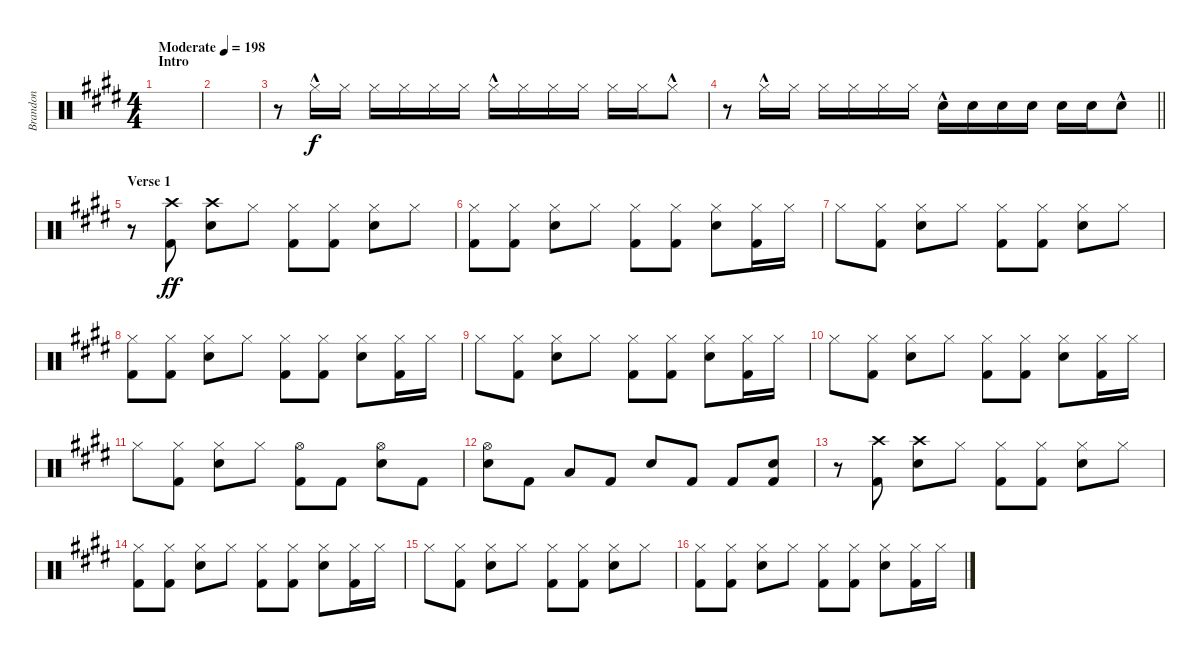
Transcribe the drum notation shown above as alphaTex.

\track ("Brandon" "Brandon") {instrument percussion}
\staff {score}
\articulation defaults
\ts (4 4)
\section ("" "Intro")
\tempo (198 "Moderate")
\clef neutral
\ks e
|
|
r.8 "Hi-Hat (closed)"{hac}.16 "Hi-Hat (closed)".16 "Hi-Hat (closed)".16 "Hi-Hat (closed)".16 "Hi-Hat (closed)".16 "Hi-Hat (closed)".16 "Hi-Hat (closed)"{hac}.16 "Hi-Hat (closed)".16 "Hi-Hat (closed)".16 "Hi-Hat (closed)".16 "Hi-Hat (closed)".16 "Hi-Hat (closed)".16 "Hi-Hat (closed)"{hac}.8 |
\barLineRight lightlight
r.8 "Hi-Hat (closed)"{hac}.16 "Hi-Hat (closed)".16 "Hi-Hat (closed)".16 "Hi-Hat (closed)".16 "Hi-Hat (closed)".16 "Hi-Hat (closed)".16 "Snare (hit) 2"{hac}.16 "Snare (hit) 2".16 "Snare (hit) 2".16 "Snare (hit) 2".16 "Snare (hit) 2".16 "Snare (hit) 2".16 "Snare (hit) 2"{hac}.8 |
\section ("" "Verse 1")
r.8 ("Kick (hit) 2" "Crash high (hit)").8{dy ff} ("Snare (hit) 2" "Crash high (hit)").8 "Hi-Hat (closed)".8 ("Kick (hit) 2" "Hi-Hat (closed)").8 ("Kick (hit) 2" "Hi-Hat (closed)").8 ("Snare (hit) 2" "Hi-Hat (closed)").8 "Hi-Hat (closed)".8 |
("Kick (hit) 2" "Hi-Hat (closed)").8 ("Kick (hit) 2" "Hi-Hat (closed)").8 ("Snare (hit) 2" "Hi-Hat (closed)").8 "Hi-Hat (closed)".8 ("Kick (hit) 2" "Hi-Hat (closed)").8 ("Kick (hit) 2" "Hi-Hat (closed)").8 ("Snare (hit) 2" "Hi-Hat (closed)").8 ("Kick (hit) 2" "Hi-Hat (closed)").16 "Hi-Hat (closed)".16 |
"Hi-Hat (closed)".8 ("Kick (hit) 2" "Hi-Hat (closed)").8 ("Snare (hit) 2" "Hi-Hat (closed)").8 "Hi-Hat (closed)".8 ("Hi-Hat (closed)" "Kick (hit) 2").8 ("Kick (hit) 2" "Hi-Hat (closed)").8 ("Snare (hit) 2" "Hi-Hat (closed)").8 "Hi-Hat (closed)".8 |
("Hi-Hat (closed)" "Kick (hit) 2").8 ("Kick (hit) 2" "Hi-Hat (closed)").8 ("Snare (hit) 2" "Hi-Hat (closed)").8 "Hi-Hat (closed)".8 ("Kick (hit) 2" "Hi-Hat (closed)").8 ("Kick (hit) 2" "Hi-Hat (closed)").8 ("Snare (hit) 2" "Hi-Hat (closed)").8 ("Kick (hit) 2" "Hi-Hat (closed)").16 "Hi-Hat (closed)".16 |
"Hi-Hat (closed)".8 ("Kick (hit) 2" "Hi-Hat (closed)").8 ("Snare (hit) 2" "Hi-Hat (closed)").8 "Hi-Hat (closed)".8 ("Kick (hit) 2" "Hi-Hat (closed)").8 ("Kick (hit) 2" "Hi-Hat (closed)").8 ("Snare (hit) 2" "Hi-Hat (closed)").8 ("Kick (hit) 2" "Hi-Hat (closed)").16 "Hi-Hat (closed)".16 |
"Hi-Hat (closed)".8 ("Kick (hit) 2" "Hi-Hat (closed)").8 ("Snare (hit) 2" "Hi-Hat (closed)").8 "Hi-Hat (closed)".8 ("Kick (hit) 2" "Hi-Hat (closed)").8 ("Kick (hit) 2" "Hi-Hat (closed)").8 ("Snare (hit) 2" "Hi-Hat (closed)").8 ("Kick (hit) 2" "Hi-Hat (closed)").16 "Hi-Hat (closed)".16 |
"Hi-Hat (closed)".8 ("Kick (hit) 2" "Hi-Hat (closed)").8 ("Snare (hit) 2" "Hi-Hat (closed)").8 "Hi-Hat (closed)".8 ("Kick (hit) 2" "Hi-Hat (open)").8 "Kick (hit) 2".8 ("Snare (hit) 2" "Hi-Hat (open)").8 "Kick (hit) 2".8 |
("Snare (hit) 2" "Hi-Hat (open)").8 "Kick (hit) 2".8 "Low Tom (hit)".8 "Kick (hit) 2".8 "Snare (hit) 2".8 "Kick (hit) 2".8 "Kick (hit) 2".8 ("Snare (hit) 2" "Kick (hit) 2").8 |
r.8 ("Kick (hit) 2" "Crash high (hit)").8 ("Snare (hit) 2" "Crash high (hit)").8 "Hi-Hat (closed)".8 ("Kick (hit) 2" "Hi-Hat (closed)").8 ("Kick (hit) 2" "Hi-Hat (closed)").8 ("Snare (hit) 2" "Hi-Hat (closed)").8 "Hi-Hat (closed)".8 |
("Kick (hit) 2" "Hi-Hat (closed)").8 ("Kick (hit) 2" "Hi-Hat (closed)").8 ("Snare (hit) 2" "Hi-Hat (closed)").8 "Hi-Hat (closed)".8 ("Kick (hit) 2" "Hi-Hat (closed)").8 ("Kick (hit) 2" "Hi-Hat (closed)").8 ("Snare (hit) 2" "Hi-Hat (closed)").8 ("Kick (hit) 2" "Hi-Hat (closed)").16 "Hi-Hat (closed)".16 |
"Hi-Hat (closed)".8 ("Kick (hit) 2" "Hi-Hat (closed)").8 ("Snare (hit) 2" "Hi-Hat (closed)").8 "Hi-Hat (closed)".8 ("Hi-Hat (closed)" "Kick (hit) 2").8 ("Kick (hit) 2" "Hi-Hat (closed)").8 ("Snare (hit) 2" "Hi-Hat (closed)").8 "Hi-Hat (closed)".8 |
("Hi-Hat (closed)" "Kick (hit) 2").8 ("Kick (hit) 2" "Hi-Hat (closed)").8 ("Snare (hit) 2" "Hi-Hat (closed)").8 "Hi-Hat (closed)".8 ("Kick (hit) 2" "Hi-Hat (closed)").8 ("Kick (hit) 2" "Hi-Hat (closed)").8 ("Snare (hit) 2" "Hi-Hat (closed)").8 ("Kick (hit) 2" "Hi-Hat (closed)").16 "Hi-Hat (closed)".16
